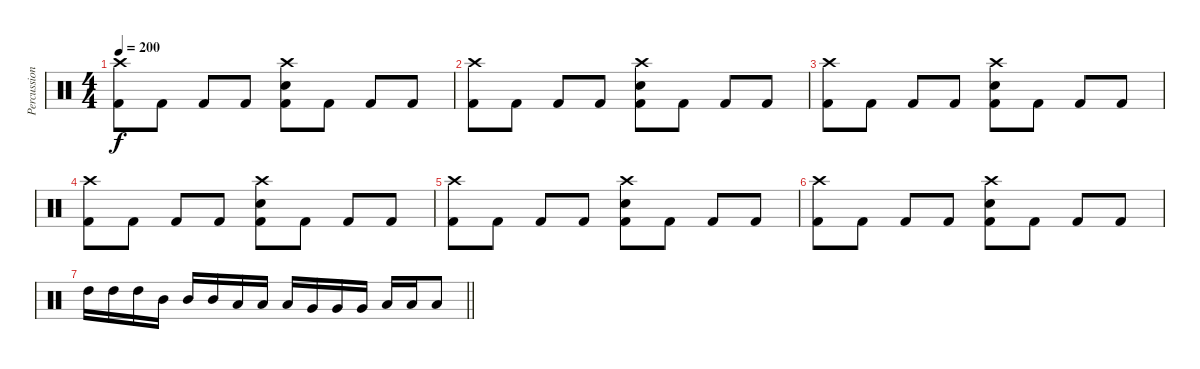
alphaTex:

\track ("Percussion" "Percussion") {instrument percussion}
\staff {score}
\articulation defaults
\ts (4 4)
\tempo 200
\clef neutral
\ks c
("Crash high (hit)" "Kick (hit) 2").8{dy f} "Kick (hit) 2".8 "Kick (hit) 2".8 "Kick (hit) 2".8 ("Crash high (hit)" "Electric Snare (hit)" "Kick (hit) 2").8 "Kick (hit) 2".8 "Kick (hit) 2".8 "Kick (hit) 2".8 |
("Crash high (hit)" "Kick (hit) 2").8 "Kick (hit) 2".8 "Kick (hit) 2".8 "Kick (hit) 2".8 ("Crash high (hit)" "Electric Snare (hit)" "Kick (hit) 2").8 "Kick (hit) 2".8 "Kick (hit) 2".8 "Kick (hit) 2".8 |
("Crash high (hit)" "Kick (hit) 2").8 "Kick (hit) 2".8 "Kick (hit) 2".8 "Kick (hit) 2".8 ("Crash high (hit)" "Electric Snare (hit)" "Kick (hit) 2").8 "Kick (hit) 2".8 "Kick (hit) 2".8 "Kick (hit) 2".8 |
("Crash high (hit)" "Kick (hit) 2").8 "Kick (hit) 2".8 "Kick (hit) 2".8 "Kick (hit) 2".8 ("Crash high (hit)" "Electric Snare (hit)" "Kick (hit) 2").8 "Kick (hit) 2".8 "Kick (hit) 2".8 "Kick (hit) 2".8 |
("Crash high (hit)" "Kick (hit) 2").8 "Kick (hit) 2".8 "Kick (hit) 2".8 "Kick (hit) 2".8 ("Crash high (hit)" "Electric Snare (hit)" "Kick (hit) 2").8 "Kick (hit) 2".8 "Kick (hit) 2".8 "Kick (hit) 2".8 |
("Crash high (hit)" "Kick (hit) 2").8 "Kick (hit) 2".8 "Kick (hit) 2".8 "Kick (hit) 2".8 ("Crash high (hit)" "Electric Snare (hit)" "Kick (hit) 2").8 "Kick (hit) 2".8 "Kick (hit) 2".8 "Kick (hit) 2".8 |
\barLineRight lightlight "High Tom (hit)".16 "High Tom (hit)".16 "High Tom (hit)".16 "Mid Tom (hit)".16 "Mid Tom (hit)".16 "Mid Tom (hit)".16 "Low Tom (hit)".16 "Low Tom (hit)".16 "Low Tom (hit)".16 "Very Low Tom (hit)".16 "Very Low Tom (hit)".16 "Very Low Tom (hit)".16 "Low Floor Tom (hit)".16 "Low Floor Tom (hit)".16 "Low Floor Tom (hit)".8
